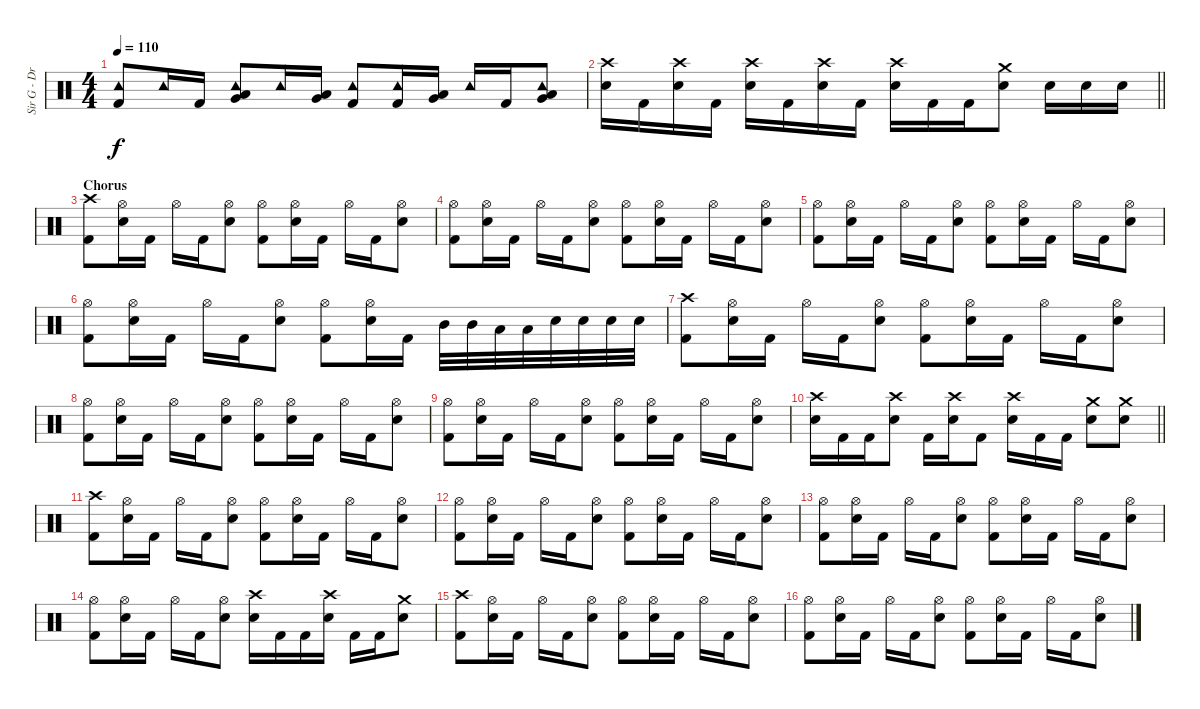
\track ("Sir G - Drums" "Sir G - Dr") {instrument percussion}
\staff {score}
\articulation defaults
\ts (4 4)
\tempo 110
\clef neutral
\ks c
("Tambourine (hit)" "Kick (hit) 2").8{dy f} "Tambourine (hit)".16 "Kick (hit) 2".16 ("Tambourine (hit)" "Very Low Tom (hit)" "Low Floor Tom (hit)").8 "Tambourine (hit)".16 ("Very Low Tom (hit)" "Low Floor Tom (hit)").16 ("Tambourine (hit)" "Kick (hit) 2").8 ("Tambourine (hit)" "Kick (hit) 2").16 ("Very Low Tom (hit)" "Low Floor Tom (hit)").16 "Tambourine (hit)".16 "Kick (hit) 2".16 ("Tambourine (hit)" "Very Low Tom (hit)" "Low Floor Tom (hit)").8 |
\barLineRight lightlight
("Crash high (hit)" "Electric Snare (hit)").16 "Kick (hit) 2".16 ("Crash high (hit)" "Electric Snare (hit)").16 "Kick (hit) 2".16 ("Crash high (hit)" "Electric Snare (hit)").16 "Kick (hit) 2".16 ("Crash high (hit)" "Electric Snare (hit)").16 "Kick (hit) 2".16 ("Crash high (hit)" "Electric Snare (hit)").16 "Kick (hit) 2".16 "Kick (hit) 2".16 ("Crash medium (hit)" "Electric Snare (hit)").8 "Electric Snare (hit)".16 "Electric Snare (hit)".16 "Electric Snare (hit)".16 |
\section ("" "Chorus")
("Crash high (hit)" "Kick (hit) 2").8 ("Hi-Hat (open)" "Electric Snare (hit)").16 "Kick (hit) 2".16 "Hi-Hat (open)".16 "Kick (hit) 2".16 ("Hi-Hat (open)" "Electric Snare (hit)").8 ("Hi-Hat (open)" "Kick (hit) 2").8 ("Hi-Hat (open)" "Electric Snare (hit)").16 "Kick (hit) 2".16 "Hi-Hat (open)".16 "Kick (hit) 2".16 ("Hi-Hat (open)" "Electric Snare (hit)").8 |
("Hi-Hat (open)" "Kick (hit) 2").8 ("Hi-Hat (open)" "Electric Snare (hit)").16 "Kick (hit) 2".16 "Hi-Hat (open)".16 "Kick (hit) 2".16 ("Hi-Hat (open)" "Electric Snare (hit)").8 ("Hi-Hat (open)" "Kick (hit) 2").8 ("Hi-Hat (open)" "Electric Snare (hit)").16 "Kick (hit) 2".16 "Hi-Hat (open)".16 "Kick (hit) 2".16 ("Hi-Hat (open)" "Electric Snare (hit)").8 |
("Hi-Hat (open)" "Kick (hit) 2").8 ("Hi-Hat (open)" "Electric Snare (hit)").16 "Kick (hit) 2".16 "Hi-Hat (open)".16 "Kick (hit) 2".16 ("Hi-Hat (open)" "Electric Snare (hit)").8 ("Hi-Hat (open)" "Kick (hit) 2").8 ("Hi-Hat (open)" "Electric Snare (hit)").16 "Kick (hit) 2".16 "Hi-Hat (open)".16 "Kick (hit) 2".16 ("Hi-Hat (open)" "Electric Snare (hit)").8 |
("Hi-Hat (open)" "Kick (hit) 2").8 ("Hi-Hat (open)" "Electric Snare (hit)").16 "Kick (hit) 2".16 "Hi-Hat (open)".16 "Kick (hit) 2".16 ("Hi-Hat (open)" "Electric Snare (hit)").8 ("Hi-Hat (open)" "Kick (hit) 2").8 ("Hi-Hat (open)" "Electric Snare (hit)").16 "Kick (hit) 2".16 "Mid Tom (hit)".32 "Mid Tom (hit)".32 "Low Tom (hit)".32 "Low Tom (hit)".32 "Electric Snare (hit)".32 "Electric Snare (hit)".32 "Electric Snare (hit)".32 "Electric Snare (hit)".32 |
("Crash high (hit)" "Kick (hit) 2").8 ("Hi-Hat (open)" "Electric Snare (hit)").16 "Kick (hit) 2".16 "Hi-Hat (open)".16 "Kick (hit) 2".16 ("Hi-Hat (open)" "Electric Snare (hit)").8 ("Hi-Hat (open)" "Kick (hit) 2").8 ("Hi-Hat (open)" "Electric Snare (hit)").16 "Kick (hit) 2".16 "Hi-Hat (open)".16 "Kick (hit) 2".16 ("Hi-Hat (open)" "Electric Snare (hit)").8 |
("Hi-Hat (open)" "Kick (hit) 2").8 ("Hi-Hat (open)" "Electric Snare (hit)").16 "Kick (hit) 2".16 "Hi-Hat (open)".16 "Kick (hit) 2".16 ("Hi-Hat (open)" "Electric Snare (hit)").8 ("Hi-Hat (open)" "Kick (hit) 2").8 ("Hi-Hat (open)" "Electric Snare (hit)").16 "Kick (hit) 2".16 "Hi-Hat (open)".16 "Kick (hit) 2".16 ("Hi-Hat (open)" "Electric Snare (hit)").8 |
("Hi-Hat (open)" "Kick (hit) 2").8 ("Hi-Hat (open)" "Electric Snare (hit)").16 "Kick (hit) 2".16 "Hi-Hat (open)".16 "Kick (hit) 2".16 ("Hi-Hat (open)" "Electric Snare (hit)").8 ("Hi-Hat (open)" "Kick (hit) 2").8 ("Hi-Hat (open)" "Electric Snare (hit)").16 "Kick (hit) 2".16 "Hi-Hat (open)".16 "Kick (hit) 2".16 ("Hi-Hat (open)" "Electric Snare (hit)").8 |
\barLineRight lightlight
("Crash high (hit)" "Electric Snare (hit)").16 "Kick (hit) 2".16 "Kick (hit) 2".16 ("Crash high (hit)" "Electric Snare (hit)").8 "Kick (hit) 2".16 ("Crash high (hit)" "Electric Snare (hit)").16 "Kick (hit) 2".8 ("Crash high (hit)" "Electric Snare (hit)").16 "Kick (hit) 2".16 "Kick (hit) 2".16 ("Crash medium (hit)" "Electric Snare (hit)").8 ("Crash medium (hit)" "Electric Snare (hit)").8 |
("Crash high (hit)" "Kick (hit) 2").8 ("Hi-Hat (open)" "Electric Snare (hit)").16 "Kick (hit) 2".16 "Hi-Hat (open)".16 "Kick (hit) 2".16 ("Hi-Hat (open)" "Electric Snare (hit)").8 ("Hi-Hat (open)" "Kick (hit) 2").8 ("Hi-Hat (open)" "Electric Snare (hit)").16 "Kick (hit) 2".16 "Hi-Hat (open)".16 "Kick (hit) 2".16 ("Hi-Hat (open)" "Electric Snare (hit)").8 |
("Hi-Hat (open)" "Kick (hit) 2").8 ("Hi-Hat (open)" "Electric Snare (hit)").16 "Kick (hit) 2".16 "Hi-Hat (open)".16 "Kick (hit) 2".16 ("Hi-Hat (open)" "Electric Snare (hit)").8 ("Hi-Hat (open)" "Kick (hit) 2").8 ("Hi-Hat (open)" "Electric Snare (hit)").16 "Kick (hit) 2".16 "Hi-Hat (open)".16 "Kick (hit) 2".16 ("Hi-Hat (open)" "Electric Snare (hit)").8 |
("Hi-Hat (open)" "Kick (hit) 2").8 ("Hi-Hat (open)" "Electric Snare (hit)").16 "Kick (hit) 2".16 "Hi-Hat (open)".16 "Kick (hit) 2".16 ("Hi-Hat (open)" "Electric Snare (hit)").8 ("Hi-Hat (open)" "Kick (hit) 2").8 ("Hi-Hat (open)" "Electric Snare (hit)").16 "Kick (hit) 2".16 "Hi-Hat (open)".16 "Kick (hit) 2".16 ("Hi-Hat (open)" "Electric Snare (hit)").8 |
("Hi-Hat (open)" "Kick (hit) 2").8 ("Hi-Hat (open)" "Electric Snare (hit)").16 "Kick (hit) 2".16 "Hi-Hat (open)".16 "Kick (hit) 2".16 ("Hi-Hat (open)" "Electric Snare (hit)").8 ("Crash high (hit)" "Electric Snare (hit)").16 "Kick (hit) 2".16 "Kick (hit) 2".16 ("Crash high (hit)" "Electric Snare (hit)").16 "Kick (hit) 2".16 "Kick (hit) 2".16 ("Crash medium (hit)" "Electric Snare (hit)").8 |
("Crash high (hit)" "Kick (hit) 2").8 ("Hi-Hat (open)" "Electric Snare (hit)").16 "Kick (hit) 2".16 "Hi-Hat (open)".16 "Kick (hit) 2".16 ("Hi-Hat (open)" "Electric Snare (hit)").8 ("Hi-Hat (open)" "Kick (hit) 2").8 ("Hi-Hat (open)" "Electric Snare (hit)").16 "Kick (hit) 2".16 "Hi-Hat (open)".16 "Kick (hit) 2".16 ("Hi-Hat (open)" "Electric Snare (hit)").8 |
("Hi-Hat (open)" "Kick (hit) 2").8 ("Hi-Hat (open)" "Electric Snare (hit)").16 "Kick (hit) 2".16 "Hi-Hat (open)".16 "Kick (hit) 2".16 ("Hi-Hat (open)" "Electric Snare (hit)").8 ("Hi-Hat (open)" "Kick (hit) 2").8 ("Hi-Hat (open)" "Electric Snare (hit)").16 "Kick (hit) 2".16 "Hi-Hat (open)".16 "Kick (hit) 2".16 ("Hi-Hat (open)" "Electric Snare (hit)").8
